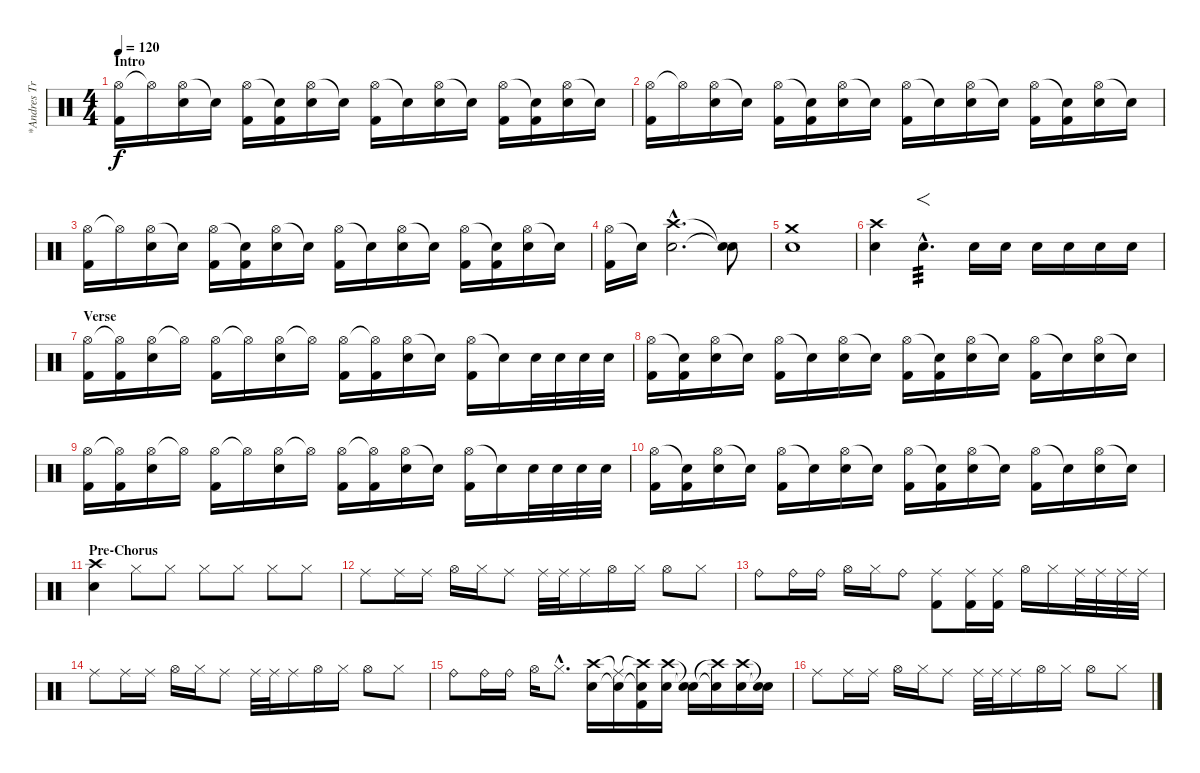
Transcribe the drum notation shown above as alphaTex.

\track ("*Andres Trujillo" "*Andres Tr") {instrument percussion}
\staff {score}
\articulation defaults
\ts (4 4)
\section ("" "Intro")
\tempo 120
\clef neutral
\ks c
("Hi-Hat (open)" "Kick (hit) 2").16{dy f volume 0} "Hi-Hat (open)"{t}.16{volume 16} ("Hi-Hat (open)" "Electric Snare (hit)").16 "Snare (hit)"{t}.16 ("Hi-Hat (open)" "Kick (hit) 2").16 ("Snare (hit)"{t} "Kick (hit) 2").16 ("Hi-Hat (open)" "Electric Snare (hit)").16 "Snare (hit)"{t}.16 ("Hi-Hat (open)" "Kick (hit) 2").16 "Snare (hit)"{t}.16 ("Hi-Hat (open)" "Electric Snare (hit)").16 "Snare (hit)"{t}.16 ("Hi-Hat (open)" "Kick (hit) 2").16 ("Snare (hit)"{t} "Kick (hit) 2").16 ("Hi-Hat (open)" "Electric Snare (hit)").16 "Snare (hit)"{t}.16 |
("Hi-Hat (open)" "Kick (hit) 2").16 "Hi-Hat (open)"{t}.16 ("Hi-Hat (open)" "Electric Snare (hit)").16 "Snare (hit)"{t}.16 ("Hi-Hat (open)" "Kick (hit) 2").16 ("Snare (hit)"{t} "Kick (hit) 2").16 ("Hi-Hat (open)" "Electric Snare (hit)").16 "Snare (hit)"{t}.16 ("Hi-Hat (open)" "Kick (hit) 2").16 "Snare (hit)"{t}.16 ("Hi-Hat (open)" "Electric Snare (hit)").16 "Snare (hit)"{t}.16 ("Hi-Hat (open)" "Kick (hit) 2").16 ("Snare (hit)"{t} "Kick (hit) 2").16 ("Hi-Hat (open)" "Electric Snare (hit)").16 "Snare (hit)"{t}.16 |
("Hi-Hat (open)" "Kick (hit) 2").16 "Hi-Hat (open)"{t}.16 ("Hi-Hat (open)" "Electric Snare (hit)").16 "Snare (hit)"{t}.16 ("Hi-Hat (open)" "Kick (hit) 2").16 ("Snare (hit)"{t} "Kick (hit) 2").16 ("Hi-Hat (open)" "Electric Snare (hit)").16 "Snare (hit)"{t}.16 ("Hi-Hat (open)" "Kick (hit) 2").16 "Snare (hit)"{t}.16 ("Hi-Hat (open)" "Electric Snare (hit)").16 "Snare (hit)"{t}.16 ("Hi-Hat (open)" "Kick (hit) 2").16 ("Snare (hit)"{t} "Kick (hit) 2").16 ("Hi-Hat (open)" "Electric Snare (hit)").16 "Snare (hit)"{t}.16 |
("Hi-Hat (open)" "Kick (hit) 2").16 "Snare (hit)"{t}.16 ("Crash high (hit)"{hac} "Electric Snare (hit)"{hac}).2{d} ("Snare (hit)"{t} "Snare (hit)"{t}).8 |
("Crash medium (hit)" "Electric Snare (hit)").1 |
("Crash high (hit)" "Electric Snare (hit)").4 "Electric Snare (hit)"{hac}.4{f d tp 3} "Electric Snare (hit)".16 "Electric Snare (hit)".16 "Electric Snare (hit)".16 "Electric Snare (hit)".16 "Electric Snare (hit)".16 "Electric Snare (hit)".16 |
\section ("" "Verse")
("Hi-Hat (open)" "Kick (hit) 2").16 ("Hi-Hat (open)"{t} "Kick (hit) 2").16 ("Hi-Hat (open)" "Electric Snare (hit)").16 "Hi-Hat (open)"{t}.16 ("Hi-Hat (open)" "Kick (hit) 2").16 "Hi-Hat (open)"{t}.16 ("Hi-Hat (open)" "Electric Snare (hit)").16 "Hi-Hat (open)"{t}.16 ("Hi-Hat (open)" "Kick (hit) 2").16 ("Hi-Hat (open)"{t} "Kick (hit) 2").16 ("Hi-Hat (open)" "Electric Snare (hit)").16 "Snare (hit)"{t}.16 ("Hi-Hat (open)" "Kick (hit) 2").16 "Snare (hit)"{t}.16 "Electric Snare (hit)".32 "Electric Snare (hit)".32 "Electric Snare (hit)".32 "Electric Snare (hit)".32 |
("Hi-Hat (open)" "Kick (hit) 2").16 ("Snare (hit)"{t} "Kick (hit) 2").16 ("Hi-Hat (open)" "Electric Snare (hit)").16 "Snare (hit)"{t}.16 ("Hi-Hat (open)" "Kick (hit) 2").16 "Snare (hit)"{t}.16 ("Hi-Hat (open)" "Electric Snare (hit)").16 "Snare (hit)"{t}.16 ("Hi-Hat (open)" "Kick (hit) 2").16 ("Snare (hit)"{t} "Kick (hit) 2").16 ("Hi-Hat (open)" "Electric Snare (hit)").16 "Snare (hit)"{t}.16 ("Hi-Hat (open)" "Kick (hit) 2").16 "Snare (hit)"{t}.16 ("Hi-Hat (open)" "Electric Snare (hit)").16 "Snare (hit)"{t}.16 |
("Hi-Hat (open)" "Kick (hit) 2").16 ("Hi-Hat (open)"{t} "Kick (hit) 2").16 ("Hi-Hat (open)" "Electric Snare (hit)").16 "Hi-Hat (open)"{t}.16 ("Hi-Hat (open)" "Kick (hit) 2").16 "Hi-Hat (open)"{t}.16 ("Hi-Hat (open)" "Electric Snare (hit)").16 "Hi-Hat (open)"{t}.16 ("Hi-Hat (open)" "Kick (hit) 2").16 ("Hi-Hat (open)"{t} "Kick (hit) 2").16 ("Hi-Hat (open)" "Electric Snare (hit)").16 "Snare (hit)"{t}.16 ("Hi-Hat (open)" "Kick (hit) 2").16 "Snare (hit)"{t}.16 "Electric Snare (hit)".32 "Electric Snare (hit)".32 "Electric Snare (hit)".32 "Electric Snare (hit)".32 |
("Hi-Hat (open)" "Kick (hit) 2").16 ("Snare (hit)"{t} "Kick (hit) 2").16 ("Hi-Hat (open)" "Electric Snare (hit)").16 "Snare (hit)"{t}.16 ("Hi-Hat (open)" "Kick (hit) 2").16 "Snare (hit)"{t}.16 ("Hi-Hat (open)" "Electric Snare (hit)").16 "Snare (hit)"{t}.16 ("Hi-Hat (open)" "Kick (hit) 2").16 ("Snare (hit)"{t} "Kick (hit) 2").16 ("Hi-Hat (open)" "Electric Snare (hit)").16 "Snare (hit)"{t}.16 ("Hi-Hat (open)" "Kick (hit) 2").16 "Snare (hit)"{t}.16 ("Hi-Hat (open)" "Electric Snare (hit)").16 "Snare (hit)"{t}.16 |
\section ("" "Pre-Chorus")
("Crash high (hit)" "Electric Snare (hit)").4 "Hi-Hat (closed)".8 "Hi-Hat (closed)".8 "Hi-Hat (closed)".8 "Hi-Hat (closed)".8 "Hi-Hat (closed)".8 "Hi-Hat (closed)".8 |
"Ride (middle)".8 "Ride (middle)".16 "Ride (middle)".16 "Hi-Hat (open)".16 "Hi-Hat (closed)".16 "Ride (middle)".8 "Ride (middle)".32 "Ride (middle)".32 "Ride (middle)".16 "Hi-Hat (open)".16 "Hi-Hat (closed)".16 "Hi-Hat (open)".8 "Hi-Hat (closed)".8 |
"Ride (bell)".8 "Ride (bell)".16 "Ride (bell)".16 "Hi-Hat (open)".16 "Hi-Hat (closed)".16 "Ride (bell)".8 ("Ride (middle)" "Kick (hit) 2").8 ("Ride (middle)" "Kick (hit) 2").16 ("Ride (middle)" "Kick (hit) 2").16 "Hi-Hat (open)".16 "Hi-Hat (closed)".16 "Ride (middle)".32 "Ride (middle)".32 "Ride (middle)".32 "Ride (middle)".32 |
"Ride (middle)".8 "Ride (middle)".16 "Ride (middle)".16 "Hi-Hat (open)".16 "Hi-Hat (closed)".16 "Ride (middle)".8 "Ride (middle)".32 "Ride (middle)".32 "Ride (middle)".16 "Hi-Hat (open)".16 "Hi-Hat (closed)".16 "Hi-Hat (open)".8 "Hi-Hat (closed)".8 |
"Ride (bell)".8 "Ride (bell)".16 "Ride (bell)".16 "Hi-Hat (open)".16 "Hi-Hat (closed)"{hac}.8{d} ("Crash high (hit)" "Electric Snare (hit)").16 ("Ride (middle)"{t} "Snare (hit)"{t}).16 ("Crash high (hit)"{t} "Electric Snare (hit)"{t} "Kick (hit) 2").16 ("Crash high (hit)" "Electric Snare (hit)").16 ("Electric Snare (hit)"{t} "Snare (hit)"{t}).16 ("Crash high (hit)"{t} "Electric Snare (hit)"{t}).16 ("Crash high (hit)" "Electric Snare (hit)").16 ("Snare (hit)"{t} "Snare (hit)"{t}).16 |
"Ride (middle)".8 "Ride (middle)".16 "Ride (middle)".16 "Hi-Hat (open)".16 "Hi-Hat (closed)".16 "Ride (middle)".8 "Ride (middle)".32 "Ride (middle)".32 "Ride (middle)".16 "Hi-Hat (open)".16 "Hi-Hat (closed)".16 "Hi-Hat (open)".8 "Hi-Hat (closed)".8
